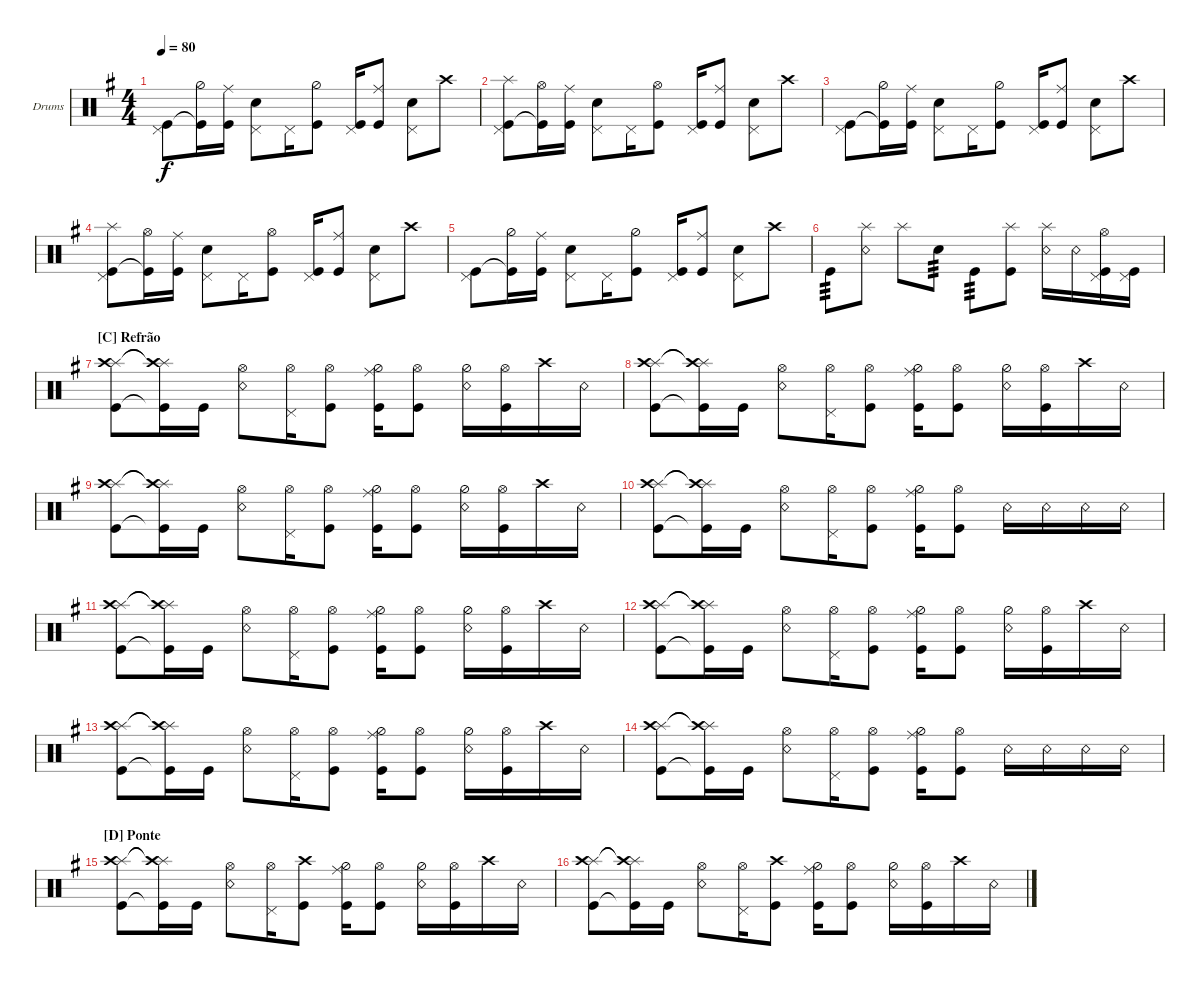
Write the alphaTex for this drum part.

\defaultSystemsLayout 4
\bracketExtendMode groupsimilarinstruments
\firstSystemTrackNameOrientation horizontal
\otherSystemsTrackNameOrientation horizontal
\track ("Drum" "Drums") {multiBarRest instrument percussion}
\staff {score}
\articulation defaults
\ts (4 4)
\tempo 80
\clef neutral
\ks g
("Kick (hit)" "Pedal Hi-Hat (hit)").8{dy f} ("Kick (hit)"{t} "Hi-Hat (half)").16 ("Kick (hit)" "Ride (middle)").16 ("Snare (hit) 2" "Pedal Hi-Hat (hit)").8 "Pedal Hi-Hat (hit)".16 ("Kick (hit)" "Hi-Hat (half)").8 ("Kick (hit)" "Pedal Hi-Hat (hit)").16 ("Kick (hit)" "Ride (middle)").8 ("Snare (hit) 2" "Pedal Hi-Hat (hit)").8 "Crash high (hit)".8 |
("Kick (hit)" "Pedal Hi-Hat (hit)" "Splash (hit)").8 ("Kick (hit)"{t} "Hi-Hat (open)").16 ("Kick (hit)" "Ride (middle)").16 ("Snare (hit) 2" "Pedal Hi-Hat (hit)").8 "Pedal Hi-Hat (hit)".16 ("Kick (hit)" "Hi-Hat (open)").8 ("Kick (hit)" "Pedal Hi-Hat (hit)").16 ("Kick (hit)" "Ride (middle)").8 ("Snare (hit) 2" "Pedal Hi-Hat (hit)").8 "Crash high (hit)".8 |
("Kick (hit)" "Pedal Hi-Hat (hit)").8 ("Kick (hit)"{t} "Hi-Hat (half)").16 ("Kick (hit)" "Ride (middle)").16 ("Snare (hit) 2" "Pedal Hi-Hat (hit)").8 "Pedal Hi-Hat (hit)".16 ("Kick (hit)" "Hi-Hat (half)").8 ("Kick (hit)" "Pedal Hi-Hat (hit)").16 ("Kick (hit)" "Ride (middle)").8 ("Snare (hit) 2" "Pedal Hi-Hat (hit)").8 "Crash high (hit)".8 |
("Kick (hit)" "Pedal Hi-Hat (hit)" "Splash (hit)").8 ("Kick (hit)"{t} "Hi-Hat (open)").16 ("Kick (hit)" "Ride (middle)").16 ("Snare (hit) 2" "Pedal Hi-Hat (hit)").8 "Pedal Hi-Hat (hit)".16 ("Kick (hit)" "Hi-Hat (open)").8 ("Kick (hit)" "Pedal Hi-Hat (hit)").16 ("Kick (hit)" "Ride (middle)").8 ("Snare (hit) 2" "Pedal Hi-Hat (hit)").8 "Crash high (hit)".8 |
("Kick (hit)" "Pedal Hi-Hat (hit)").8 ("Kick (hit)"{t} "Hi-Hat (half)").16 ("Kick (hit)" "Ride (middle)").16 ("Snare (hit) 2" "Pedal Hi-Hat (hit)").8 "Pedal Hi-Hat (hit)".16 ("Kick (hit)" "Hi-Hat (half)").8 ("Kick (hit)" "Pedal Hi-Hat (hit)").16 ("Kick (hit)" "Ride (middle)").8 ("Snare (hit) 2" "Pedal Hi-Hat (hit)").8 "Crash high (hit)".8 |
"Kick (hit)".8{tp 3} ("Snare (rim shot)" "Splash (hit)").8 "Splash (hit)".8 "Snare (hit) 2".8{tp 3} "Kick (hit)".8{tp 3} ("Kick (hit)" "Splash (hit)").8 ("Snare (rim shot)" "Splash (hit)").16 "Snare (rim shot)".16 ("Kick (hit)" "Pedal Hi-Hat (hit)" "Hi-Hat (open)").16 ("Pedal Hi-Hat (hit)" "Kick (hit)").16 |
\section ("C" "Refrão")
("Kick (hit)" "Splash (hit)" "Crash high (hit)").8 ("Kick (hit)"{t} "Splash (hit)"{t} "Crash high (hit)"{t}).16 "Kick (hit)".16 ("Snare (rim shot)" "Hi-Hat (open)").8 ("Pedal Hi-Hat (hit)" "Hi-Hat (open)").16 ("Kick (hit)" "Hi-Hat (open)").8 ("Kick (hit)" "Hi-Hat (half)" "Ride (middle)").16 ("Kick (hit)" "Hi-Hat (open)").8 ("Snare (rim shot)" "Hi-Hat (half)").16 ("Kick (hit)" "Hi-Hat (open)").16 "Crash high (hit)".16 "Snare (rim shot)".16 |
("Kick (hit)" "Splash (hit)" "Crash high (hit)").8 ("Kick (hit)"{t} "Splash (hit)"{t} "Crash high (hit)"{t}).16 "Kick (hit)".16 ("Snare (rim shot)" "Hi-Hat (open)").8 ("Pedal Hi-Hat (hit)" "Hi-Hat (open)").16 ("Kick (hit)" "Hi-Hat (open)").8 ("Kick (hit)" "Hi-Hat (half)" "Ride (middle)").16 ("Kick (hit)" "Hi-Hat (open)").8 ("Snare (rim shot)" "Hi-Hat (half)").16 ("Kick (hit)" "Hi-Hat (open)").16 "Crash high (hit)".16 "Snare (rim shot)".16 |
("Kick (hit)" "Splash (hit)" "Crash high (hit)").8 ("Kick (hit)"{t} "Splash (hit)"{t} "Crash high (hit)"{t}).16 "Kick (hit)".16 ("Snare (rim shot)" "Hi-Hat (open)").8 ("Pedal Hi-Hat (hit)" "Hi-Hat (open)").16 ("Kick (hit)" "Hi-Hat (open)").8 ("Kick (hit)" "Hi-Hat (half)" "Ride (middle)").16 ("Kick (hit)" "Hi-Hat (open)").8 ("Snare (rim shot)" "Hi-Hat (half)").16 ("Kick (hit)" "Hi-Hat (open)").16 "Crash high (hit)".16 "Snare (rim shot)".16 |
("Kick (hit)" "Splash (hit)" "Crash high (hit)").8 ("Kick (hit)"{t} "Splash (hit)"{t} "Crash high (hit)"{t}).16 "Kick (hit)".16 ("Snare (rim shot)" "Hi-Hat (open)").8 ("Pedal Hi-Hat (hit)" "Hi-Hat (open)").16 ("Kick (hit)" "Hi-Hat (open)").8 ("Kick (hit)" "Hi-Hat (half)" "Ride (middle)").16 ("Kick (hit)" "Hi-Hat (open)").8 "Snare (rim shot)".16 "Snare (rim shot)".16 "Snare (rim shot)".16 "Snare (rim shot)".16 |
("Kick (hit)" "Splash (hit)" "Crash high (hit)").8 ("Kick (hit)"{t} "Splash (hit)"{t} "Crash high (hit)"{t}).16 "Kick (hit)".16 ("Snare (rim shot)" "Hi-Hat (open)").8 ("Pedal Hi-Hat (hit)" "Hi-Hat (open)").16 ("Kick (hit)" "Hi-Hat (open)").8 ("Kick (hit)" "Hi-Hat (half)" "Ride (middle)").16 ("Kick (hit)" "Hi-Hat (open)").8 ("Snare (rim shot)" "Hi-Hat (half)").16 ("Kick (hit)" "Hi-Hat (open)").16 "Crash high (hit)".16 "Snare (rim shot)".16 |
("Kick (hit)" "Splash (hit)" "Crash high (hit)").8 ("Kick (hit)"{t} "Splash (hit)"{t} "Crash high (hit)"{t}).16 "Kick (hit)".16 ("Snare (rim shot)" "Hi-Hat (open)").8 ("Pedal Hi-Hat (hit)" "Hi-Hat (open)").16 ("Kick (hit)" "Hi-Hat (open)").8 ("Kick (hit)" "Hi-Hat (half)" "Ride (middle)").16 ("Kick (hit)" "Hi-Hat (open)").8 ("Snare (rim shot)" "Hi-Hat (half)").16 ("Kick (hit)" "Hi-Hat (open)").16 "Crash high (hit)".16 "Snare (rim shot)".16 |
("Kick (hit)" "Splash (hit)" "Crash high (hit)").8 ("Kick (hit)"{t} "Splash (hit)"{t} "Crash high (hit)"{t}).16 "Kick (hit)".16 ("Snare (rim shot)" "Hi-Hat (open)").8 ("Pedal Hi-Hat (hit)" "Hi-Hat (open)").16 ("Kick (hit)" "Hi-Hat (open)").8 ("Kick (hit)" "Hi-Hat (half)" "Ride (middle)").16 ("Kick (hit)" "Hi-Hat (open)").8 ("Snare (rim shot)" "Hi-Hat (half)").16 ("Kick (hit)" "Hi-Hat (open)").16 "Crash high (hit)".16 "Snare (rim shot)".16 |
("Kick (hit)" "Splash (hit)" "Crash high (hit)").8 ("Kick (hit)"{t} "Splash (hit)"{t} "Crash high (hit)"{t}).16 "Kick (hit)".16 ("Snare (rim shot)" "Hi-Hat (open)").8 ("Pedal Hi-Hat (hit)" "Hi-Hat (open)").16 ("Kick (hit)" "Hi-Hat (open)").8 ("Kick (hit)" "Hi-Hat (half)" "Ride (middle)").16 ("Kick (hit)" "Hi-Hat (open)").8 "Snare (rim shot)".16 "Snare (rim shot)".16 "Snare (rim shot)".16 "Snare (rim shot)".16 |
\section ("D" "Ponte")
("Kick (hit)" "Splash (hit)" "Crash high (hit)").8 ("Kick (hit)"{t} "Splash (hit)"{t} "Crash high (hit)"{t}).16 "Kick (hit)".16 ("Snare (rim shot)" "Hi-Hat (open)").8 ("Pedal Hi-Hat (hit)" "Hi-Hat (open)").16 ("Kick (hit)" "Crash high (hit)").8 ("Kick (hit)" "Hi-Hat (half)" "Ride (middle)").16 ("Kick (hit)" "Hi-Hat (open)").8 ("Snare (rim shot)" "Hi-Hat (half)").16 ("Kick (hit)" "Hi-Hat (open)").16 "Crash high (hit)".16 "Snare (rim shot)".16 |
("Kick (hit)" "Splash (hit)" "Crash high (hit)").8 ("Kick (hit)"{t} "Splash (hit)"{t} "Crash high (hit)"{t}).16 "Kick (hit)".16 ("Snare (rim shot)" "Hi-Hat (open)").8 ("Pedal Hi-Hat (hit)" "Hi-Hat (open)").16 ("Kick (hit)" "Crash high (hit)").8 ("Kick (hit)" "Hi-Hat (half)" "Ride (middle)").16 ("Kick (hit)" "Hi-Hat (open)").8 ("Snare (rim shot)" "Hi-Hat (half)").16 ("Kick (hit)" "Hi-Hat (open)").16 "Crash high (hit)".16 "Snare (rim shot)".16
